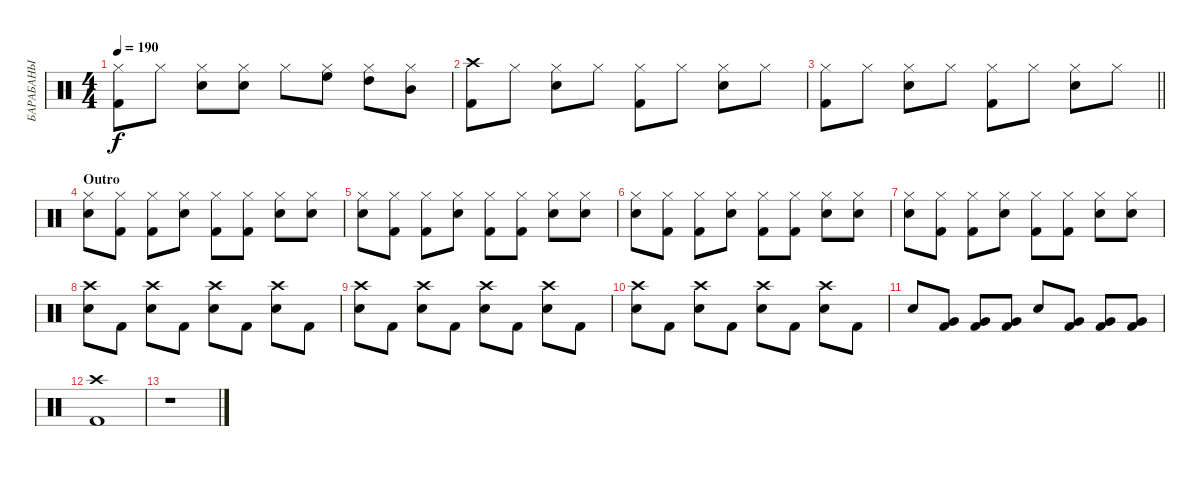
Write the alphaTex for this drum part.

\track ("БАРАБАНЫ" "БАРАБАНЫ") {instrument percussion}
\staff {score}
\articulation defaults
\ts (4 4)
\tempo 190
\clef neutral
\ks c
("Hi-Hat (closed)" "Kick (hit) 2").8{dy f} "Hi-Hat (closed)".8 ("Hi-Hat (closed)" "Snare (hit) 2").8 ("Hi-Hat (closed)" "Snare (hit) 2").8 "Hi-Hat (closed)".8 ("Hi-Hat (closed)" "High Floor Tom (hit)").8 ("Hi-Hat (closed)" "High Tom (hit)").8 ("Hi-Hat (closed)" "Mid Tom (hit)").8 |
("Crash high (hit)" "Kick (hit) 2").8 "Hi-Hat (closed)".8 ("Hi-Hat (closed)" "Snare (hit) 2").8 "Hi-Hat (closed)".8 ("Hi-Hat (closed)" "Kick (hit) 2").8 "Hi-Hat (closed)".8 ("Hi-Hat (closed)" "Snare (hit) 2").8 "Hi-Hat (closed)".8 |
\barLineRight lightlight
("Hi-Hat (closed)" "Kick (hit) 2").8 "Hi-Hat (closed)".8 ("Hi-Hat (closed)" "Snare (hit) 2").8 "Hi-Hat (closed)".8 ("Hi-Hat (closed)" "Kick (hit) 2").8 "Hi-Hat (closed)".8 ("Hi-Hat (closed)" "Snare (hit) 2").8 "Hi-Hat (closed)".8 |
\section ("" "Outro")
("Hi-Hat (closed)" "Snare (hit) 2").8 ("Hi-Hat (closed)" "Kick (hit) 2").8 ("Hi-Hat (closed)" "Kick (hit) 2").8 ("Hi-Hat (closed)" "Snare (hit) 2").8 ("Hi-Hat (closed)" "Kick (hit) 2").8 ("Hi-Hat (closed)" "Kick (hit) 2").8 ("Hi-Hat (closed)" "Snare (hit) 2").8 ("Hi-Hat (closed)" "Snare (hit) 2").8 |
("Hi-Hat (closed)" "Snare (hit) 2").8 ("Hi-Hat (closed)" "Kick (hit) 2").8 ("Hi-Hat (closed)" "Kick (hit) 2").8 ("Hi-Hat (closed)" "Snare (hit) 2").8 ("Hi-Hat (closed)" "Kick (hit) 2").8 ("Hi-Hat (closed)" "Kick (hit) 2").8 ("Hi-Hat (closed)" "Snare (hit) 2").8 ("Hi-Hat (closed)" "Snare (hit) 2").8 |
("Hi-Hat (closed)" "Snare (hit) 2").8 ("Hi-Hat (closed)" "Kick (hit) 2").8 ("Hi-Hat (closed)" "Kick (hit) 2").8 ("Hi-Hat (closed)" "Snare (hit) 2").8 ("Hi-Hat (closed)" "Kick (hit) 2").8 ("Hi-Hat (closed)" "Kick (hit) 2").8 ("Hi-Hat (closed)" "Snare (hit) 2").8 ("Hi-Hat (closed)" "Snare (hit) 2").8 |
("Hi-Hat (closed)" "Snare (hit) 2").8 ("Hi-Hat (closed)" "Kick (hit) 2").8 ("Hi-Hat (closed)" "Kick (hit) 2").8 ("Hi-Hat (closed)" "Snare (hit) 2").8 ("Hi-Hat (closed)" "Kick (hit) 2").8 ("Hi-Hat (closed)" "Kick (hit) 2").8 ("Hi-Hat (closed)" "Snare (hit) 2").8 ("Hi-Hat (closed)" "Snare (hit) 2").8 |
("Crash high (hit)" "Snare (hit) 2").8 "Kick (hit) 2".8 ("Crash high (hit)" "Snare (hit) 2").8 "Kick (hit) 2".8 ("Crash high (hit)" "Snare (hit) 2").8 "Kick (hit) 2".8 ("Crash high (hit)" "Snare (hit) 2").8 "Kick (hit) 2".8 |
("Crash high (hit)" "Snare (hit) 2").8 "Kick (hit) 2".8 ("Crash high (hit)" "Snare (hit) 2").8 "Kick (hit) 2".8 ("Crash high (hit)" "Snare (hit) 2").8 "Kick (hit) 2".8 ("Crash high (hit)" "Snare (hit) 2").8 "Kick (hit) 2".8 |
("Crash high (hit)" "Snare (hit) 2").8 "Kick (hit) 2".8 ("Crash high (hit)" "Snare (hit) 2").8 "Kick (hit) 2".8 ("Crash high (hit)" "Snare (hit) 2").8 "Kick (hit) 2".8 ("Crash high (hit)" "Snare (hit) 2").8 "Kick (hit) 2".8 |
"Snare (hit) 2".8 ("Very Low Tom (hit)" "Kick (hit) 2").8 ("Very Low Tom (hit)" "Kick (hit) 2").8 ("Very Low Tom (hit)" "Kick (hit) 2").8 "Snare (hit) 2".8 ("Very Low Tom (hit)" "Kick (hit) 2").8 ("Very Low Tom (hit)" "Kick (hit) 2").8 ("Very Low Tom (hit)" "Kick (hit) 2").8 |
("Crash high (hit)" "Kick (hit) 2").1 |
r.1
